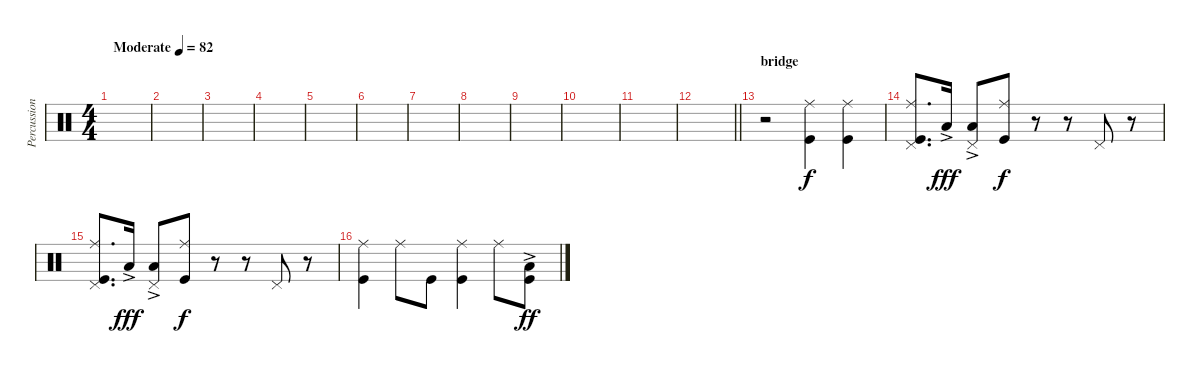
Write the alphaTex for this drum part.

\track ("Percussion" "Percussion") {instrument percussion}
\staff {score}
\articulation defaults
\ts (4 4)
\tempo (82 "Moderate")
\clef neutral
\ks c
|
|
|
|
|
|
|
|
|
|
|
\barLineRight lightlight
|
\section ("" "bridge")
r.2 ("Ride (middle)" "Kick (hit)").4 ("Ride (middle)" "Kick (hit)").4 |
("Ride (middle)" "Kick (hit)" "Pedal Hi-Hat (hit)").8{d} "Low Tom (hit)"{ac}.16{dy fff} ("Low Tom (hit)"{ac} "Pedal Hi-Hat (hit)").8 ("Ride (middle)" "Kick (hit)").8{dy f} r.8 r.8 "Pedal Hi-Hat (hit)".8 r.8 |
("Ride (middle)" "Kick (hit)" "Pedal Hi-Hat (hit)").8{d} "Low Floor Tom (hit)"{ac}.16{dy fff} ("Low Floor Tom (hit)"{ac} "Pedal Hi-Hat (hit)").8 ("Ride (middle)" "Kick (hit)").8{dy f} r.8 r.8 "Pedal Hi-Hat (hit)".8 r.8 |
("Ride (middle)" "Kick (hit)").4 "Ride (middle)".8 "Kick (hit)".8 ("Ride (middle)" "Kick (hit)").4 "Ride (middle)".8 ("Low Floor Tom (hit)"{ac} "Kick (hit)").8{dy ff}
